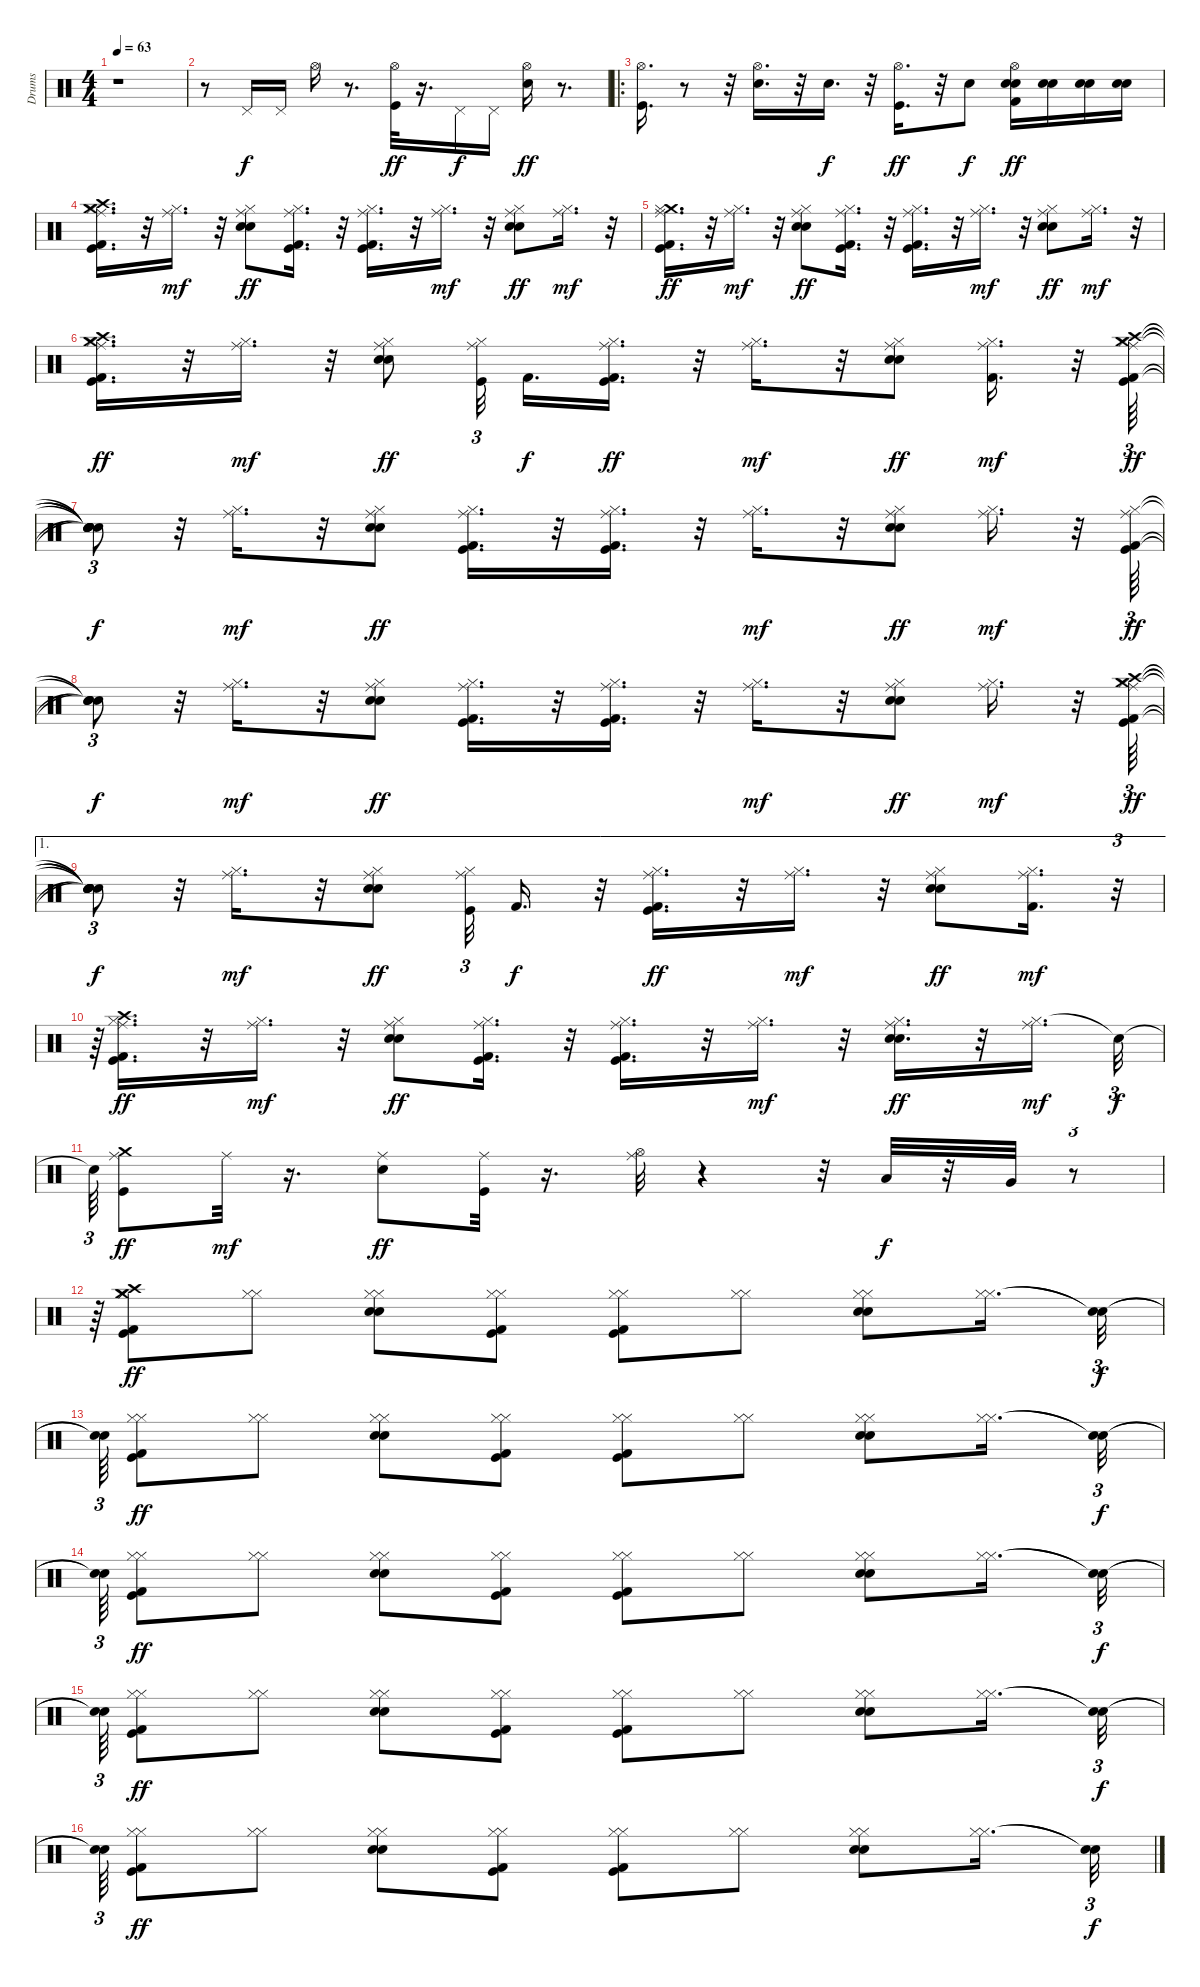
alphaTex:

\track ("Drums" "Drums") {instrument percussion}
\staff {score}
\articulation defaults
\ts (4 4)
\tempo 63
\clef neutral
\ks c
r.1{dy pp} |
r.8 "Pedal Hi-Hat (hit)".16{dy f} "Pedal Hi-Hat (hit)".16 "Hi-Hat (open)".16 r.8{d} ("Kick (hit)" "Hi-Hat (open)").32{dy ff} r.16{d} "Pedal Hi-Hat (hit)".16{dy f} "Pedal Hi-Hat (hit)".16 ("Hi-Hat (open)" "Snare (hit) 2").16{dy ff} r.8{d} |
\ro
("Hi-Hat (open)" "Kick (hit)").16{d} r.8 r.32 ("Hi-Hat (open)" "Snare (hit) 2").16{d} r.32 "Snare (hit) 2".16{d dy f} r.32 ("Hi-Hat (open)" "Kick (hit)").16{d dy ff} r.32 "Snare (hit) 2".8{dy f} ("Kick (hit) 2" "Hi-Hat (open)" "Snare (hit) 2" "Snare (hit) 2").16{dy ff} ("Snare (hit) 2" "Snare (hit) 2").16 ("Snare (hit) 2" "Snare (hit) 2").16 ("Snare (hit) 2" "Snare (hit) 2").16 |
("Hi-Hat (closed)" "Crash medium (hit)" "Kick (hit) 2" "Crash high (hit)" "Ride (middle)" "Kick (hit)").16{d} r.32 ("Hi-Hat (closed)" "Ride (middle)").16{d dy mf} r.32 ("Hi-Hat (closed)" "Snare (hit) 2" "Ride (middle)" "Snare (hit) 2").8{dy ff} ("Hi-Hat (closed)" "Kick (hit) 2" "Ride (middle)" "Kick (hit)").16{d} r.32 ("Hi-Hat (closed)" "Kick (hit) 2" "Ride (middle)" "Kick (hit)").16{d} r.32 ("Hi-Hat (closed)" "Ride (middle)").16{d dy mf} r.32 ("Hi-Hat (closed)" "Snare (hit) 2" "Ride (middle)" "Snare (hit) 2").8{dy ff} ("Hi-Hat (closed)" "Ride (middle)").16{d dy mf} r.32 |
("Crash medium (hit)" "Hi-Hat (closed)" "Kick (hit) 2" "Ride (middle)" "Kick (hit)").16{d dy ff} r.32 ("Hi-Hat (closed)" "Ride (middle)").16{d dy mf} r.32 ("Snare (hit) 2" "Hi-Hat (closed)" "Ride (middle)" "Snare (hit) 2").8{dy ff} ("Hi-Hat (closed)" "Kick (hit) 2" "Ride (middle)" "Kick (hit)").16{d} r.32 ("Hi-Hat (closed)" "Kick (hit) 2" "Ride (middle)" "Kick (hit)").16{d} r.32 ("Hi-Hat (closed)" "Ride (middle)").16{d dy mf} r.32 ("Snare (hit) 2" "Hi-Hat (closed)" "Ride (middle)" "Snare (hit) 2").8{dy ff} ("Hi-Hat (closed)" "Ride (middle)").16{d dy mf} r.32 |
("Crash medium (hit)" "Hi-Hat (closed)" "Kick (hit) 2" "Ride (middle)" "Kick (hit)" "Crash high (hit)").16{d dy ff} r.32 ("Hi-Hat (closed)" "Ride (middle)").16{d dy mf} r.32 ("Snare (hit) 2" "Hi-Hat (closed)" "Ride (middle)" "Snare (hit) 2").8{dy ff} ("Hi-Hat (closed)" "Ride (middle)" "Kick (hit)").32{tu (3 2) beam splitsecondary} "Kick (hit) 2".16{d dy f} ("Hi-Hat (closed)" "Kick (hit) 2" "Ride (middle)" "Kick (hit)").16{d dy ff} r.32 ("Hi-Hat (closed)" "Ride (middle)").16{d dy mf} r.32 ("Snare (hit) 2" "Hi-Hat (closed)" "Ride (middle)" "Snare (hit) 2").8{dy ff} ("Hi-Hat (closed)" "Kick (hit) 2" "Ride (middle)").16{d dy mf} r.32 ("Crash medium (hit)" "Hi-Hat (closed)" "Kick (hit) 2" "Crash high (hit)" "Ride (middle)" "Kick (hit)").64{tu (3 2) dy ff} |
("Snare (hit)"{t} "Snare (hit)"{t} "Snare (hit)"{t} "Snare (hit)"{t} "Snare (hit)"{t} "Snare (hit)"{t}).8{tu (3 2) dy f} r.32 ("Hi-Hat (closed)" "Ride (middle)").16{d dy mf} r.32 ("Hi-Hat (closed)" "Snare (hit) 2" "Ride (middle)" "Snare (hit) 2").8{dy ff} ("Hi-Hat (closed)" "Kick (hit) 2" "Ride (middle)" "Kick (hit)").16{d} r.32 ("Hi-Hat (closed)" "Kick (hit) 2" "Ride (middle)" "Kick (hit)").16{d} r.32 ("Hi-Hat (closed)" "Ride (middle)").16{d dy mf} r.32 ("Hi-Hat (closed)" "Snare (hit) 2" "Ride (middle)" "Snare (hit) 2").8{dy ff} ("Hi-Hat (closed)" "Ride (middle)").16{d dy mf} r.32 ("Hi-Hat (closed)" "Kick (hit) 2" "Ride (middle)" "Kick (hit)").64{tu (3 2) dy ff} |
("Snare (hit)"{t} "Snare (hit)"{t} "Snare (hit)"{t} "Snare (hit)"{t}).8{tu (3 2) dy f} r.32 ("Hi-Hat (closed)" "Ride (middle)").16{d dy mf} r.32 ("Snare (hit) 2" "Hi-Hat (closed)" "Ride (middle)" "Snare (hit) 2").8{dy ff} ("Hi-Hat (closed)" "Kick (hit) 2" "Ride (middle)" "Kick (hit)").16{d} r.32 ("Hi-Hat (closed)" "Kick (hit) 2" "Ride (middle)" "Kick (hit)").16{d} r.32 ("Hi-Hat (closed)" "Ride (middle)").16{d dy mf} r.32 ("Snare (hit) 2" "Hi-Hat (closed)" "Ride (middle)" "Snare (hit) 2").8{dy ff} ("Hi-Hat (closed)" "Ride (middle)").16{d dy mf} r.32 ("Crash medium (hit)" "Hi-Hat (closed)" "Kick (hit) 2" "Crash high (hit)" "Ride (middle)" "Kick (hit)").64{tu (3 2) dy ff} |
\ae 1
("Snare (hit)"{t} "Snare (hit)"{t} "Snare (hit)"{t} "Snare (hit)"{t} "Snare (hit)"{t} "Snare (hit)"{t}).8{tu (3 2) dy f} r.32 ("Hi-Hat (closed)" "Ride (middle)").16{d dy mf} r.32 ("Snare (hit) 2" "Hi-Hat (closed)" "Ride (middle)" "Snare (hit) 2").8{dy ff} ("Hi-Hat (closed)" "Ride (middle)" "Kick (hit)").32{tu (3 2)} "Kick (hit) 2".16{d dy f} r.32 ("Hi-Hat (closed)" "Kick (hit) 2" "Ride (middle)" "Kick (hit)").16{d dy ff} r.32 ("Hi-Hat (closed)" "Ride (middle)").16{d dy mf} r.32 ("Snare (hit) 2" "Hi-Hat (closed)" "Ride (middle)" "Snare (hit) 2").8{dy ff} ("Hi-Hat (closed)" "Kick (hit) 2" "Ride (middle)").16{d dy mf} r.32{tu (3 2)} |
r.64{tu (3 2)} ("Hi-Hat (closed)" "Kick (hit) 2" "Crash high (hit)" "Ride (middle)" "Kick (hit)").16{d dy ff} r.32 ("Hi-Hat (closed)" "Ride (middle)").16{d dy mf} r.32 ("Snare (hit) 2" "Hi-Hat (closed)" "Ride (middle)" "Snare (hit) 2").8{dy ff} ("Hi-Hat (closed)" "Kick (hit) 2" "Ride (middle)" "Kick (hit)").16{d} r.32 ("Hi-Hat (closed)" "Kick (hit) 2" "Ride (middle)" "Kick (hit)").16{d} r.32 ("Hi-Hat (closed)" "Ride (middle)").16{d dy mf} r.32 ("Snare (hit) 2" "Hi-Hat (closed)" "Ride (middle)" "Snare (hit) 2").16{d dy ff} r.32 ("Hi-Hat (closed)" "Ride (middle)").16{d dy mf} "Snare (hit)"{t}.32{tu (3 2) dy f} |
"Snare (hit)"{t}.64{tu (3 2)} ("Crash medium (hit)" "Ride (middle)" "Kick (hit)").8{dy ff} "Ride (middle)".32{dy mf} r.16{d} ("Ride (middle)" "Snare (hit) 2").8{dy ff} ("Ride (middle)" "Kick (hit)").32 r.16{d} ("Ride (middle)" "Hi-Hat (open)").32 r.4 r.32 "Low Tom (hit)".32{dy f} r.32 "Very Low Tom (hit)".32 r.8{tu (3 2)} |
r.64{tu (3 2)} ("Crash medium (hit)" "Hi-Hat (closed)" "Kick (hit) 2" "Crash high (hit)" "Hi-Hat (closed)" "Kick (hit)").8{dy ff} ("Hi-Hat (closed)" "Hi-Hat (closed)").8 ("Snare (hit) 2" "Hi-Hat (closed)" "Hi-Hat (closed)" "Snare (hit) 2").8 ("Hi-Hat (closed)" "Kick (hit) 2" "Hi-Hat (closed)" "Kick (hit)").8 ("Hi-Hat (closed)" "Kick (hit) 2" "Hi-Hat (closed)" "Kick (hit)").8 ("Hi-Hat (closed)" "Hi-Hat (closed)").8 ("Snare (hit) 2" "Hi-Hat (closed)" "Snare (hit) 2" "Hi-Hat (closed)").8 ("Hi-Hat (closed)" "Hi-Hat (closed)").16{d} ("Snare (hit)"{t} "Snare (hit)"{t}).32{tu (3 2) dy f} |
("Snare (hit)"{t} "Snare (hit)"{t}).64{tu (3 2)} ("Hi-Hat (closed)" "Kick (hit) 2" "Hi-Hat (closed)" "Kick (hit)").8{dy ff} ("Hi-Hat (closed)" "Hi-Hat (closed)").8 ("Snare (hit) 2" "Hi-Hat (closed)" "Hi-Hat (closed)" "Snare (hit) 2").8 ("Hi-Hat (closed)" "Kick (hit) 2" "Hi-Hat (closed)" "Kick (hit)").8 ("Hi-Hat (closed)" "Kick (hit) 2" "Hi-Hat (closed)" "Kick (hit)").8 ("Hi-Hat (closed)" "Hi-Hat (closed)").8 ("Snare (hit) 2" "Hi-Hat (closed)" "Snare (hit) 2" "Hi-Hat (closed)").8 ("Hi-Hat (closed)" "Hi-Hat (closed)").16{d} ("Snare (hit)"{t} "Snare (hit)"{t}).32{tu (3 2) dy f} |
("Snare (hit)"{t} "Snare (hit)"{t}).64{tu (3 2)} ("Hi-Hat (closed)" "Kick (hit) 2" "Hi-Hat (closed)" "Kick (hit)").8{dy ff} ("Hi-Hat (closed)" "Hi-Hat (closed)").8 ("Snare (hit) 2" "Hi-Hat (closed)" "Hi-Hat (closed)" "Snare (hit) 2").8 ("Hi-Hat (closed)" "Kick (hit) 2" "Hi-Hat (closed)" "Kick (hit)").8 ("Hi-Hat (closed)" "Kick (hit) 2" "Hi-Hat (closed)" "Kick (hit)").8 ("Hi-Hat (closed)" "Hi-Hat (closed)").8 ("Snare (hit) 2" "Hi-Hat (closed)" "Snare (hit) 2" "Hi-Hat (closed)").8 ("Hi-Hat (closed)" "Hi-Hat (closed)").16{d} ("Snare (hit)"{t} "Snare (hit)"{t}).32{tu (3 2) dy f} |
("Snare (hit)"{t} "Snare (hit)"{t}).64{tu (3 2)} ("Hi-Hat (closed)" "Kick (hit) 2" "Hi-Hat (closed)" "Kick (hit)").8{dy ff} ("Hi-Hat (closed)" "Hi-Hat (closed)").8 ("Snare (hit) 2" "Hi-Hat (closed)" "Hi-Hat (closed)" "Snare (hit) 2").8 ("Hi-Hat (closed)" "Kick (hit) 2" "Hi-Hat (closed)" "Kick (hit)").8 ("Hi-Hat (closed)" "Kick (hit) 2" "Hi-Hat (closed)" "Kick (hit)").8 ("Hi-Hat (closed)" "Hi-Hat (closed)").8 ("Snare (hit) 2" "Hi-Hat (closed)" "Snare (hit) 2" "Hi-Hat (closed)").8 ("Hi-Hat (closed)" "Hi-Hat (closed)").16{d} ("Snare (hit)"{t} "Snare (hit)"{t}).32{tu (3 2) dy f} |
("Snare (hit)"{t} "Snare (hit)"{t}).64{tu (3 2)} ("Hi-Hat (closed)" "Kick (hit) 2" "Hi-Hat (closed)" "Kick (hit)").8{dy ff} ("Hi-Hat (closed)" "Hi-Hat (closed)").8 ("Snare (hit) 2" "Hi-Hat (closed)" "Hi-Hat (closed)" "Snare (hit) 2").8 ("Hi-Hat (closed)" "Kick (hit) 2" "Hi-Hat (closed)" "Kick (hit)").8 ("Hi-Hat (closed)" "Kick (hit) 2" "Hi-Hat (closed)" "Kick (hit)").8 ("Hi-Hat (closed)" "Hi-Hat (closed)").8 ("Snare (hit) 2" "Hi-Hat (closed)" "Snare (hit) 2" "Hi-Hat (closed)").8 ("Hi-Hat (closed)" "Hi-Hat (closed)").16{d} ("Snare (hit)"{t} "Snare (hit)"{t}).32{tu (3 2) dy f}
